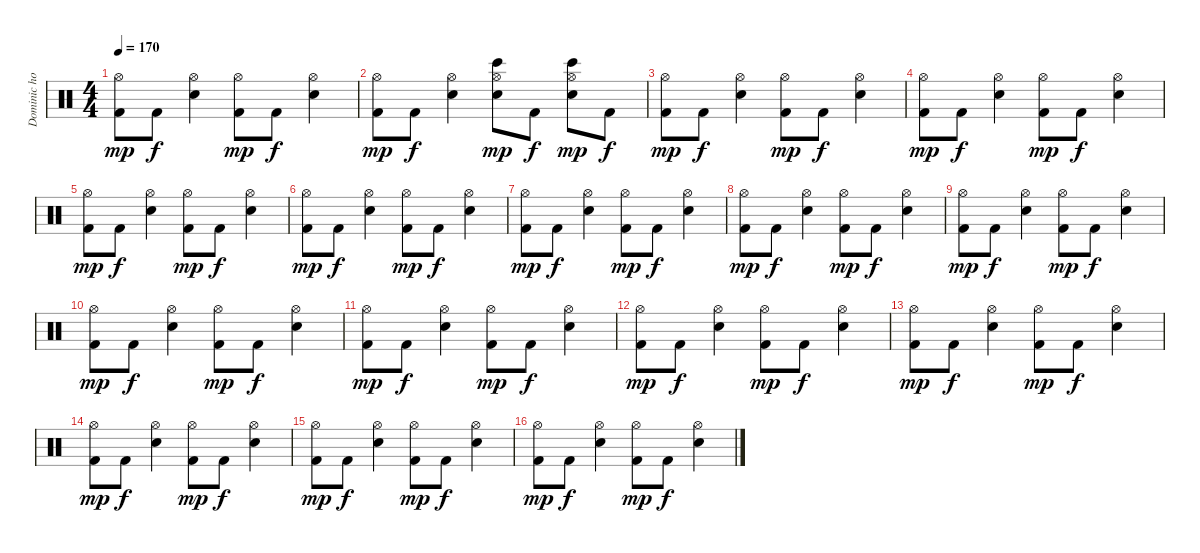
\track ("Dominic howard" "Dominic ho") {instrument percussion}
\staff {score}
\articulation defaults
\ts (4 4)
\tempo 170
\clef neutral
\ks c
("Hi-Hat (open)" "Kick (hit) 2").8{dy mp} "Kick (hit) 2".8{dy f} ("Hi-Hat (open)" "Electric Snare (hit)").4 ("Hi-Hat (open)" "Kick (hit) 2").8{dy mp} "Kick (hit) 2".8{dy f} ("Hi-Hat (open)" "Electric Snare (hit)").4 |
("Hi-Hat (open)" "Kick (hit) 2").8{dy mp} "Kick (hit) 2".8{dy f} ("Hi-Hat (open)" "Electric Snare (hit)").4 ("Hi-Hat (open)" "Electric Snare (hit)" "Bongo High (hit)").8{dy mp} "Kick (hit) 2".8{dy f} ("Hi-Hat (open)" "Electric Snare (hit)" "Bongo High (hit)").8{dy mp} "Kick (hit) 2".8{dy f} |
("Hi-Hat (open)" "Kick (hit) 2").8{dy mp} "Kick (hit) 2".8{dy f} ("Hi-Hat (open)" "Electric Snare (hit)").4 ("Hi-Hat (open)" "Kick (hit) 2").8{dy mp} "Kick (hit) 2".8{dy f} ("Hi-Hat (open)" "Electric Snare (hit)").4 |
("Hi-Hat (open)" "Kick (hit) 2").8{dy mp} "Kick (hit) 2".8{dy f} ("Hi-Hat (open)" "Electric Snare (hit)").4 ("Hi-Hat (open)" "Kick (hit) 2").8{dy mp} "Kick (hit) 2".8{dy f} ("Hi-Hat (open)" "Electric Snare (hit)").4 |
("Hi-Hat (open)" "Kick (hit) 2").8{dy mp} "Kick (hit) 2".8{dy f} ("Hi-Hat (open)" "Electric Snare (hit)").4 ("Hi-Hat (open)" "Kick (hit) 2").8{dy mp} "Kick (hit) 2".8{dy f} ("Hi-Hat (open)" "Electric Snare (hit)").4 |
("Hi-Hat (open)" "Kick (hit) 2").8{dy mp} "Kick (hit) 2".8{dy f} ("Hi-Hat (open)" "Electric Snare (hit)").4 ("Hi-Hat (open)" "Kick (hit) 2").8{dy mp} "Kick (hit) 2".8{dy f} ("Hi-Hat (open)" "Electric Snare (hit)").4 |
("Hi-Hat (open)" "Kick (hit) 2").8{dy mp} "Kick (hit) 2".8{dy f} ("Hi-Hat (open)" "Electric Snare (hit)").4 ("Hi-Hat (open)" "Kick (hit) 2").8{dy mp} "Kick (hit) 2".8{dy f} ("Hi-Hat (open)" "Electric Snare (hit)").4 |
("Hi-Hat (open)" "Kick (hit) 2").8{dy mp} "Kick (hit) 2".8{dy f} ("Hi-Hat (open)" "Electric Snare (hit)").4 ("Hi-Hat (open)" "Kick (hit) 2").8{dy mp} "Kick (hit) 2".8{dy f} ("Hi-Hat (open)" "Electric Snare (hit)").4 |
("Hi-Hat (open)" "Kick (hit) 2").8{dy mp} "Kick (hit) 2".8{dy f} ("Hi-Hat (open)" "Electric Snare (hit)").4 ("Hi-Hat (open)" "Kick (hit) 2").8{dy mp} "Kick (hit) 2".8{dy f} ("Hi-Hat (open)" "Electric Snare (hit)").4 |
("Hi-Hat (open)" "Kick (hit) 2").8{dy mp} "Kick (hit) 2".8{dy f} ("Hi-Hat (open)" "Electric Snare (hit)").4 ("Hi-Hat (open)" "Kick (hit) 2").8{dy mp} "Kick (hit) 2".8{dy f} ("Hi-Hat (open)" "Electric Snare (hit)").4 |
("Hi-Hat (open)" "Kick (hit) 2").8{dy mp} "Kick (hit) 2".8{dy f} ("Hi-Hat (open)" "Electric Snare (hit)").4 ("Hi-Hat (open)" "Kick (hit) 2").8{dy mp} "Kick (hit) 2".8{dy f} ("Hi-Hat (open)" "Electric Snare (hit)").4 |
("Hi-Hat (open)" "Kick (hit) 2").8{dy mp} "Kick (hit) 2".8{dy f} ("Hi-Hat (open)" "Electric Snare (hit)").4 ("Hi-Hat (open)" "Kick (hit) 2").8{dy mp} "Kick (hit) 2".8{dy f} ("Hi-Hat (open)" "Electric Snare (hit)").4 |
("Hi-Hat (open)" "Kick (hit) 2").8{dy mp} "Kick (hit) 2".8{dy f} ("Hi-Hat (open)" "Electric Snare (hit)").4 ("Hi-Hat (open)" "Kick (hit) 2").8{dy mp} "Kick (hit) 2".8{dy f} ("Hi-Hat (open)" "Electric Snare (hit)").4 |
("Hi-Hat (open)" "Kick (hit) 2").8{dy mp} "Kick (hit) 2".8{dy f} ("Hi-Hat (open)" "Electric Snare (hit)").4 ("Hi-Hat (open)" "Kick (hit) 2").8{dy mp} "Kick (hit) 2".8{dy f} ("Hi-Hat (open)" "Electric Snare (hit)").4 |
("Hi-Hat (open)" "Kick (hit) 2").8{dy mp} "Kick (hit) 2".8{dy f} ("Hi-Hat (open)" "Electric Snare (hit)").4 ("Hi-Hat (open)" "Kick (hit) 2").8{dy mp} "Kick (hit) 2".8{dy f} ("Hi-Hat (open)" "Electric Snare (hit)").4 |
("Hi-Hat (open)" "Kick (hit) 2").8{dy mp} "Kick (hit) 2".8{dy f} ("Hi-Hat (open)" "Electric Snare (hit)").4 ("Hi-Hat (open)" "Kick (hit) 2").8{dy mp} "Kick (hit) 2".8{dy f} ("Hi-Hat (open)" "Electric Snare (hit)").4
